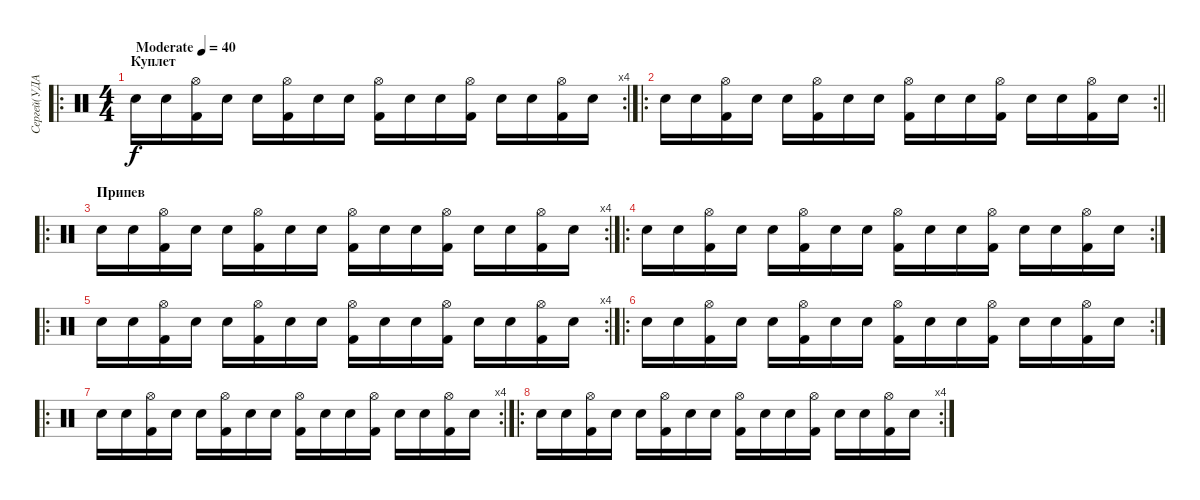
\track ("Сергей(УДАРНЫЕ)" "Сергей(УДА") {instrument percussion}
\staff {score}
\articulation defaults
\ro
\rc 4
\ts (4 4)
\section ("" "Куплет")
\tempo (40 "Moderate")
\clef neutral
\ks c "Hand Clap (hit)".16{dy f} "Hand Clap (hit)".16
("Hi-Hat (open)" "Kick (hit) 2").16 "Hand Clap (hit)".16 "Hand Clap (hit)".16 ("Kick (hit) 2" "Hi-Hat (open)").16 "Hand Clap (hit)".16 "Hand Clap (hit)".16 ("Kick (hit) 2" "Hi-Hat (open)").16 "Hand Clap (hit)".16 "Hand Clap (hit)".16 ("Kick (hit) 2" "Hi-Hat (open)").16 "Hand Clap (hit)".16 "Hand Clap (hit)".16 ("Kick (hit) 2" "Hi-Hat (open)").16 "Hand Clap (hit)".16 |
\ro
\rc 2
\barLineRight lightlight "Hand Clap (hit)".16 "Hand Clap (hit)".16
("Hi-Hat (open)" "Kick (hit) 2").16 "Hand Clap (hit)".16 "Hand Clap (hit)".16 ("Kick (hit) 2" "Hi-Hat (open)").16 "Hand Clap (hit)".16 "Hand Clap (hit)".16 ("Kick (hit) 2" "Hi-Hat (open)").16 "Hand Clap (hit)".16 "Hand Clap (hit)".16 ("Kick (hit) 2" "Hi-Hat (open)").16 "Hand Clap (hit)".16 "Hand Clap (hit)".16 ("Kick (hit) 2" "Hi-Hat (open)").16 "Hand Clap (hit)".16 |
\ro
\rc 4
\section ("" "Припев")
"Hand Clap (hit)".16 "Hand Clap (hit)".16 ("Hi-Hat (open)" "Kick (hit) 2").16 "Hand Clap (hit)".16 "Hand Clap (hit)".16 ("Kick (hit) 2" "Hi-Hat (open)").16 "Hand Clap (hit)".16 "Hand Clap (hit)".16 ("Kick (hit) 2" "Hi-Hat (open)").16 "Hand Clap (hit)".16 "Hand Clap (hit)".16 ("Kick (hit) 2" "Hi-Hat (open)").16 "Hand Clap (hit)".16 "Hand Clap (hit)".16 ("Kick (hit) 2" "Hi-Hat (open)").16 "Hand Clap (hit)".16 |
\ro
\rc 2 "Hand Clap (hit)".16 "Hand Clap (hit)".16
("Hi-Hat (open)" "Kick (hit) 2").16 "Hand Clap (hit)".16 "Hand Clap (hit)".16 ("Kick (hit) 2" "Hi-Hat (open)").16 "Hand Clap (hit)".16 "Hand Clap (hit)".16 ("Kick (hit) 2" "Hi-Hat (open)").16 "Hand Clap (hit)".16 "Hand Clap (hit)".16 ("Kick (hit) 2" "Hi-Hat (open)").16 "Hand Clap (hit)".16 "Hand Clap (hit)".16 ("Kick (hit) 2" "Hi-Hat (open)").16 "Hand Clap (hit)".16 |
\ro
\rc 4 "Hand Clap (hit)".16 "Hand Clap (hit)".16
("Hi-Hat (open)" "Kick (hit) 2").16 "Hand Clap (hit)".16 "Hand Clap (hit)".16 ("Kick (hit) 2" "Hi-Hat (open)").16 "Hand Clap (hit)".16 "Hand Clap (hit)".16 ("Kick (hit) 2" "Hi-Hat (open)").16 "Hand Clap (hit)".16 "Hand Clap (hit)".16 ("Kick (hit) 2" "Hi-Hat (open)").16 "Hand Clap (hit)".16 "Hand Clap (hit)".16 ("Kick (hit) 2" "Hi-Hat (open)").16 "Hand Clap (hit)".16 |
\ro
\rc 2 "Hand Clap (hit)".16 "Hand Clap (hit)".16
("Hi-Hat (open)" "Kick (hit) 2").16 "Hand Clap (hit)".16 "Hand Clap (hit)".16 ("Kick (hit) 2" "Hi-Hat (open)").16 "Hand Clap (hit)".16 "Hand Clap (hit)".16 ("Kick (hit) 2" "Hi-Hat (open)").16 "Hand Clap (hit)".16 "Hand Clap (hit)".16 ("Kick (hit) 2" "Hi-Hat (open)").16 "Hand Clap (hit)".16 "Hand Clap (hit)".16 ("Kick (hit) 2" "Hi-Hat (open)").16 "Hand Clap (hit)".16 |
\ro
\rc 4 "Hand Clap (hit)".16 "Hand Clap (hit)".16
("Hi-Hat (open)" "Kick (hit) 2").16 "Hand Clap (hit)".16 "Hand Clap (hit)".16 ("Kick (hit) 2" "Hi-Hat (open)").16 "Hand Clap (hit)".16 "Hand Clap (hit)".16 ("Kick (hit) 2" "Hi-Hat (open)").16 "Hand Clap (hit)".16 "Hand Clap (hit)".16 ("Kick (hit) 2" "Hi-Hat (open)").16 "Hand Clap (hit)".16 "Hand Clap (hit)".16 ("Kick (hit) 2" "Hi-Hat (open)").16 "Hand Clap (hit)".16 |
\ro
\rc 4 "Hand Clap (hit)".16 "Hand Clap (hit)".16
("Hi-Hat (open)" "Kick (hit) 2").16 "Hand Clap (hit)".16 "Hand Clap (hit)".16 ("Kick (hit) 2" "Hi-Hat (open)").16 "Hand Clap (hit)".16 "Hand Clap (hit)".16 ("Kick (hit) 2" "Hi-Hat (open)").16 "Hand Clap (hit)".16 "Hand Clap (hit)".16 ("Kick (hit) 2" "Hi-Hat (open)").16 "Hand Clap (hit)".16 "Hand Clap (hit)".16 ("Kick (hit) 2" "Hi-Hat (open)").16 "Hand Clap (hit)".16
